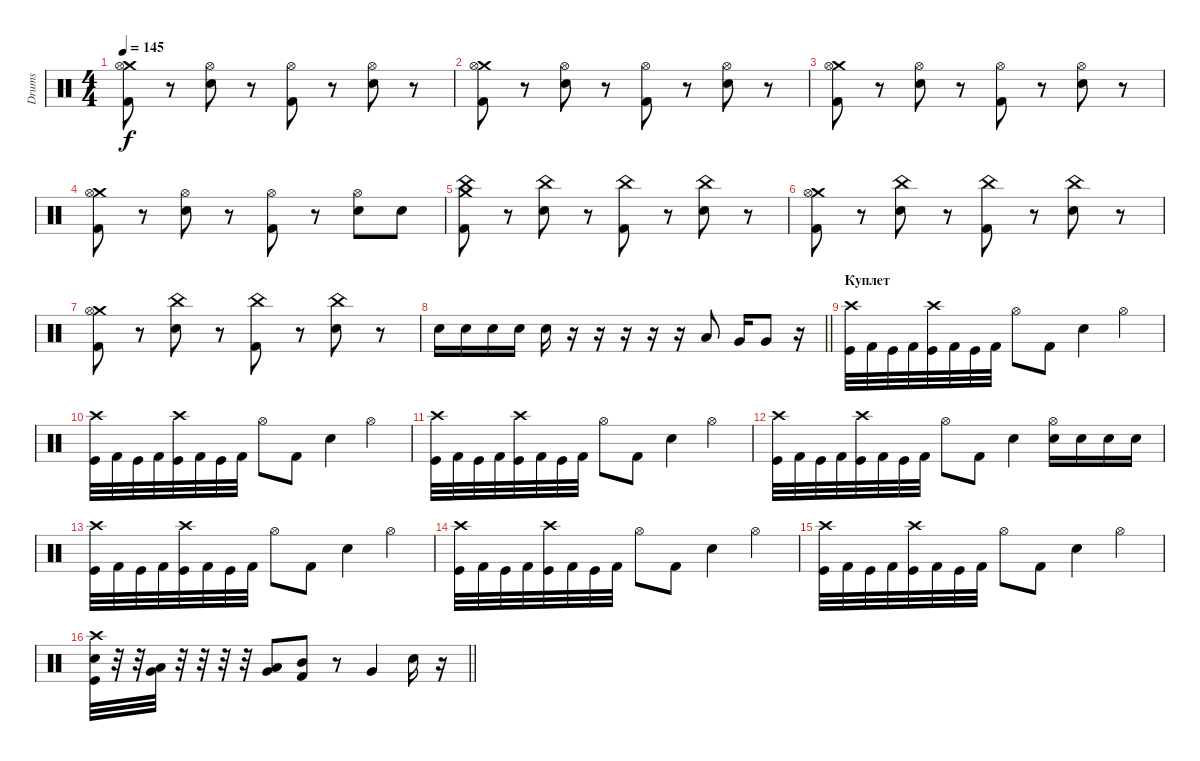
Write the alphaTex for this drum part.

\track ("Drums" "Drums") {instrument percussion}
\staff {score}
\articulation defaults
\ts (4 4)
\tempo 145
\clef neutral
\ks c
("Crash medium (hit)" "Hi-Hat (open)" "Kick (hit) 2").8{dy f} r.8 ("Hi-Hat (open)" "Electric Snare (hit)").8 r.8 ("Hi-Hat (open)" "Kick (hit) 2").8 r.8 ("Hi-Hat (open)" "Electric Snare (hit)").8 r.8 |
("Crash medium (hit)" "Hi-Hat (open)" "Kick (hit) 2").8 r.8 ("Hi-Hat (open)" "Electric Snare (hit)").8 r.8 ("Hi-Hat (open)" "Kick (hit) 2").8 r.8 ("Hi-Hat (open)" "Electric Snare (hit)").8 r.8 |
("Crash medium (hit)" "Hi-Hat (open)" "Kick (hit) 2").8 r.8 ("Hi-Hat (open)" "Electric Snare (hit)").8 r.8 ("Hi-Hat (open)" "Kick (hit) 2").8 r.8 ("Hi-Hat (open)" "Electric Snare (hit)").8 r.8 |
("Crash medium (hit)" "Hi-Hat (open)" "Kick (hit) 2").8 r.8 ("Hi-Hat (open)" "Electric Snare (hit)").8 r.8 ("Hi-Hat (open)" "Kick (hit) 2").8 r.8 ("Hi-Hat (open)" "Electric Snare (hit)").8 "Electric Snare (hit)".8 |
("Crash medium (hit)" "China (hit)" "Kick (hit) 2").8 r.8 ("China (hit)" "Electric Snare (hit)").8 r.8 ("China (hit)" "Kick (hit) 2").8 r.8 ("China (hit)" "Electric Snare (hit)").8 r.8 |
("Crash medium (hit)" "Hi-Hat (open)" "Kick (hit) 2").8 r.8 ("China (hit)" "Electric Snare (hit)").8 r.8 ("China (hit)" "Kick (hit) 2").8 r.8 ("China (hit)" "Electric Snare (hit)").8 r.8 |
("Crash medium (hit)" "Hi-Hat (open)" "Kick (hit) 2").8 r.8 ("China (hit)" "Electric Snare (hit)").8 r.8 ("China (hit)" "Kick (hit) 2").8 r.8 ("China (hit)" "Electric Snare (hit)").8 r.8 |
\barLineRight lightlight "Electric Snare (hit)".16 "Electric Snare (hit)".16 "Electric Snare (hit)".16 "Electric Snare (hit)".16 "Electric Snare (hit)".16
r.16 r.16 r.16 r.16 r.16 "Low Tom (hit)".8 "Very Low Tom (hit)".16 "Very Low Tom (hit)".8 r.16 |
\section ("" "Куплет")
("Crash high (hit)" "Kick (hit)").32 "Kick (hit) 2".32 "Kick (hit)".32 "Kick (hit) 2".32 ("Crash high (hit)" "Kick (hit)").32 "Kick (hit) 2".32 "Kick (hit)".32 "Kick (hit) 2".32 "Hi-Hat (open)".8 "Kick (hit) 2".8 "Snare (hit) 2".4 "Hi-Hat (open)".4 |
("Crash high (hit)" "Kick (hit)").32 "Kick (hit) 2".32 "Kick (hit)".32 "Kick (hit) 2".32 ("Crash high (hit)" "Kick (hit)").32 "Kick (hit) 2".32 "Kick (hit)".32 "Kick (hit) 2".32 "Hi-Hat (open)".8 "Kick (hit) 2".8 "Snare (hit) 2".4 "Hi-Hat (open)".4 |
("Crash high (hit)" "Kick (hit)").32 "Kick (hit) 2".32 "Kick (hit)".32 "Kick (hit) 2".32 ("Crash high (hit)" "Kick (hit)").32 "Kick (hit) 2".32 "Kick (hit)".32 "Kick (hit) 2".32 "Hi-Hat (open)".8 "Kick (hit) 2".8 "Snare (hit) 2".4 "Hi-Hat (open)".4 |
("Crash high (hit)" "Kick (hit)").32 "Kick (hit) 2".32 "Kick (hit)".32 "Kick (hit) 2".32 ("Crash high (hit)" "Kick (hit)").32 "Kick (hit) 2".32 "Kick (hit)".32 "Kick (hit) 2".32 "Hi-Hat (open)".8 "Kick (hit) 2".8 "Snare (hit) 2".4 ("Hi-Hat (open)" "Snare (hit) 2").16 "Snare (hit) 2".16 "Snare (hit) 2".16 "Snare (hit) 2".16 |
("Crash high (hit)" "Kick (hit)").32 "Kick (hit) 2".32 "Kick (hit)".32 "Kick (hit) 2".32 ("Crash high (hit)" "Kick (hit)").32 "Kick (hit) 2".32 "Kick (hit)".32 "Kick (hit) 2".32 "Hi-Hat (open)".8 "Kick (hit) 2".8 "Snare (hit) 2".4 "Hi-Hat (open)".4 |
("Crash high (hit)" "Kick (hit)").32 "Kick (hit) 2".32 "Kick (hit)".32 "Kick (hit) 2".32 ("Crash high (hit)" "Kick (hit)").32 "Kick (hit) 2".32 "Kick (hit)".32 "Kick (hit) 2".32 "Hi-Hat (open)".8 "Kick (hit) 2".8 "Snare (hit) 2".4 "Hi-Hat (open)".4 |
("Crash high (hit)" "Kick (hit)").32 "Kick (hit) 2".32 "Kick (hit)".32 "Kick (hit) 2".32 ("Crash high (hit)" "Kick (hit)").32 "Kick (hit) 2".32 "Kick (hit)".32 "Kick (hit) 2".32 "Hi-Hat (open)".8 "Kick (hit) 2".8 "Snare (hit) 2".4 "Hi-Hat (open)".4 |
\barLineRight lightlight
("Crash high (hit)" "Snare (hit) 2" "Kick (hit)").32 r.32 r.32 ("Low Tom (hit)" "Very Low Tom (hit)").32 r.32 r.32 r.32 r.32 ("Low Tom (hit)" "Very Low Tom (hit)").8 ("Mid Tom (hit)" "Kick (hit) 2").8 r.8 "Very Low Tom (hit)".4 "Snare (hit) 2".16 r.16
